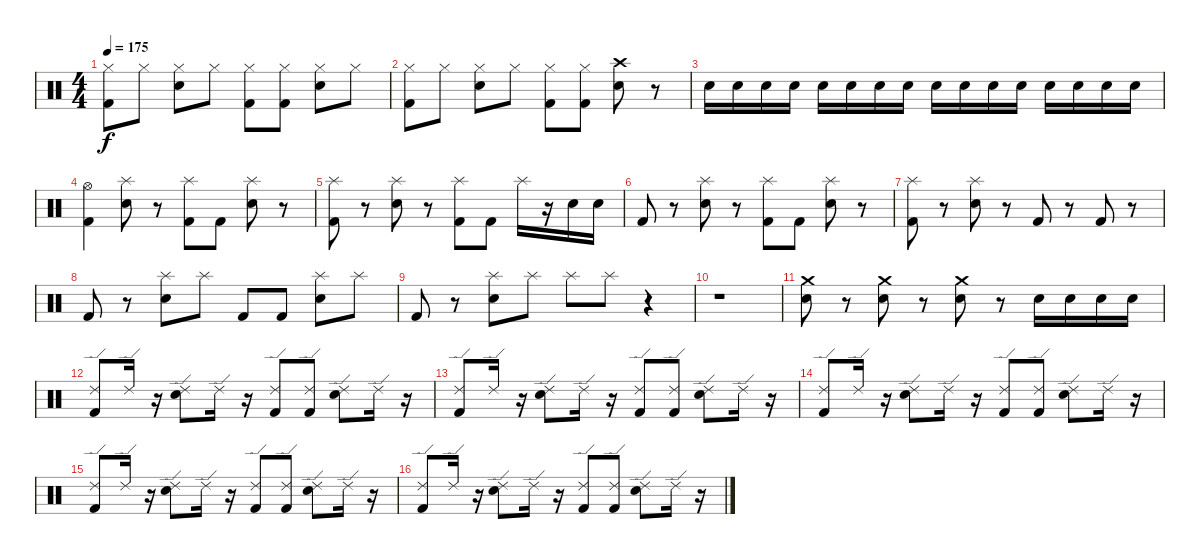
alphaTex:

\track "" {instrument percussion}
\staff {score}
\articulation defaults
\ts (4 4)
\tempo 175
\clef neutral
\ks c
("Hi-Hat (closed)" "Kick (hit) 2").8{dy f} "Hi-Hat (closed)".8 ("Hi-Hat (closed)" "Electric Snare (hit)").8 "Hi-Hat (closed)".8 ("Hi-Hat (closed)" "Kick (hit) 2").8 ("Hi-Hat (closed)" "Kick (hit) 2").8 ("Hi-Hat (closed)" "Electric Snare (hit)").8 "Hi-Hat (closed)".8 |
("Hi-Hat (closed)" "Kick (hit) 2").8 "Hi-Hat (closed)".8 ("Hi-Hat (closed)" "Electric Snare (hit)").8 "Hi-Hat (closed)".8 ("Hi-Hat (closed)" "Kick (hit) 2").8 ("Hi-Hat (closed)" "Kick (hit) 2").8 ("Crash high (hit)" "Electric Snare (hit)").8 r.8 |
"Electric Snare (hit)".16 "Electric Snare (hit)".16 "Electric Snare (hit)".16 "Electric Snare (hit)".16 "Electric Snare (hit)".16 "Electric Snare (hit)".16 "Electric Snare (hit)".16 "Electric Snare (hit)".16 "Electric Snare (hit)".16 "Electric Snare (hit)".16 "Electric Snare (hit)".16 "Electric Snare (hit)".16 "Electric Snare (hit)".16 "Electric Snare (hit)".16 "Electric Snare (hit)".16 "Electric Snare (hit)".16 |
("Hi-Hat (open)" "Kick (hit) 2").4 ("Splash (hit)" "Electric Snare (hit)").8 r.8 ("Splash (hit)" "Kick (hit) 2").8 "Kick (hit) 2".8 ("Splash (hit)" "Electric Snare (hit)").8 r.8 |
("Splash (hit)" "Kick (hit) 2").8 r.8 ("Splash (hit)" "Electric Snare (hit)").8 r.8 ("Splash (hit)" "Kick (hit) 2").8 "Kick (hit) 2".8 "Splash (hit)".16 r.16 "Electric Snare (hit)".16 "Electric Snare (hit)".16 |
"Kick (hit) 2".8 r.8 ("Splash (hit)" "Electric Snare (hit)").8 r.8 ("Splash (hit)" "Kick (hit) 2").8 "Kick (hit) 2".8 ("Splash (hit)" "Electric Snare (hit)").8 r.8 |
("Splash (hit)" "Kick (hit) 2").8 r.8 ("Splash (hit)" "Electric Snare (hit)").8 r.8 "Kick (hit) 2".8 r.8 "Kick (hit) 2".8 r.8 |
"Kick (hit) 2".8 r.8 ("Splash (hit)" "Electric Snare (hit)").8 "Splash (hit)".8 "Kick (hit) 2".8 "Kick (hit) 2".8 ("Splash (hit)" "Electric Snare (hit)").8 "Splash (hit)".8 |
"Kick (hit) 2".8 r.8 ("Splash (hit)" "Electric Snare (hit)").8 "Splash (hit)".8 "Splash (hit)".8 "Splash (hit)".8 r.4 |
r.1 |
("Crash medium (hit)" "Electric Snare (hit)").8 r.8 ("Crash medium (hit)" "Electric Snare (hit)").8 r.8 ("Crash medium (hit)" "Electric Snare (hit)").8 r.8 "Electric Snare (hit)".16 "Electric Snare (hit)".16 "Electric Snare (hit)".16 "Electric Snare (hit)".16 |
("Ride (edge) 2" "Kick (hit) 2").8 "Ride (edge) 2".16 r.16 ("Ride (edge) 2" "Electric Snare (hit)").8 "Ride (edge) 2".16 r.16 ("Ride (edge) 2" "Kick (hit) 2").8 ("Ride (edge) 2" "Kick (hit) 2").8 ("Ride (edge) 2" "Electric Snare (hit)").8 "Ride (edge) 2".16 r.16 |
("Ride (edge) 2" "Kick (hit) 2").8 "Ride (edge) 2".16 r.16 ("Ride (edge) 2" "Electric Snare (hit)").8 "Ride (edge) 2".16 r.16 ("Ride (edge) 2" "Kick (hit) 2").8 ("Ride (edge) 2" "Kick (hit) 2").8 ("Ride (edge) 2" "Electric Snare (hit)").8 "Ride (edge) 2".16 r.16 |
("Ride (edge) 2" "Kick (hit) 2").8 "Ride (edge) 2".16 r.16 ("Ride (edge) 2" "Electric Snare (hit)").8 "Ride (edge) 2".16 r.16 ("Ride (edge) 2" "Kick (hit) 2").8 ("Ride (edge) 2" "Kick (hit) 2").8 ("Ride (edge) 2" "Electric Snare (hit)").8 "Ride (edge) 2".16 r.16 |
("Ride (edge) 2" "Kick (hit) 2").8 "Ride (edge) 2".16 r.16 ("Ride (edge) 2" "Electric Snare (hit)").8 "Ride (edge) 2".16 r.16 ("Ride (edge) 2" "Kick (hit) 2").8 ("Ride (edge) 2" "Kick (hit) 2").8 ("Ride (edge) 2" "Electric Snare (hit)").8 "Ride (edge) 2".16 r.16 |
("Ride (edge) 2" "Kick (hit) 2").8 "Ride (edge) 2".16 r.16 ("Ride (edge) 2" "Electric Snare (hit)").8 "Ride (edge) 2".16 r.16 ("Ride (edge) 2" "Kick (hit) 2").8 ("Ride (edge) 2" "Kick (hit) 2").8 ("Ride (edge) 2" "Electric Snare (hit)").8 "Ride (edge) 2".16 r.16
